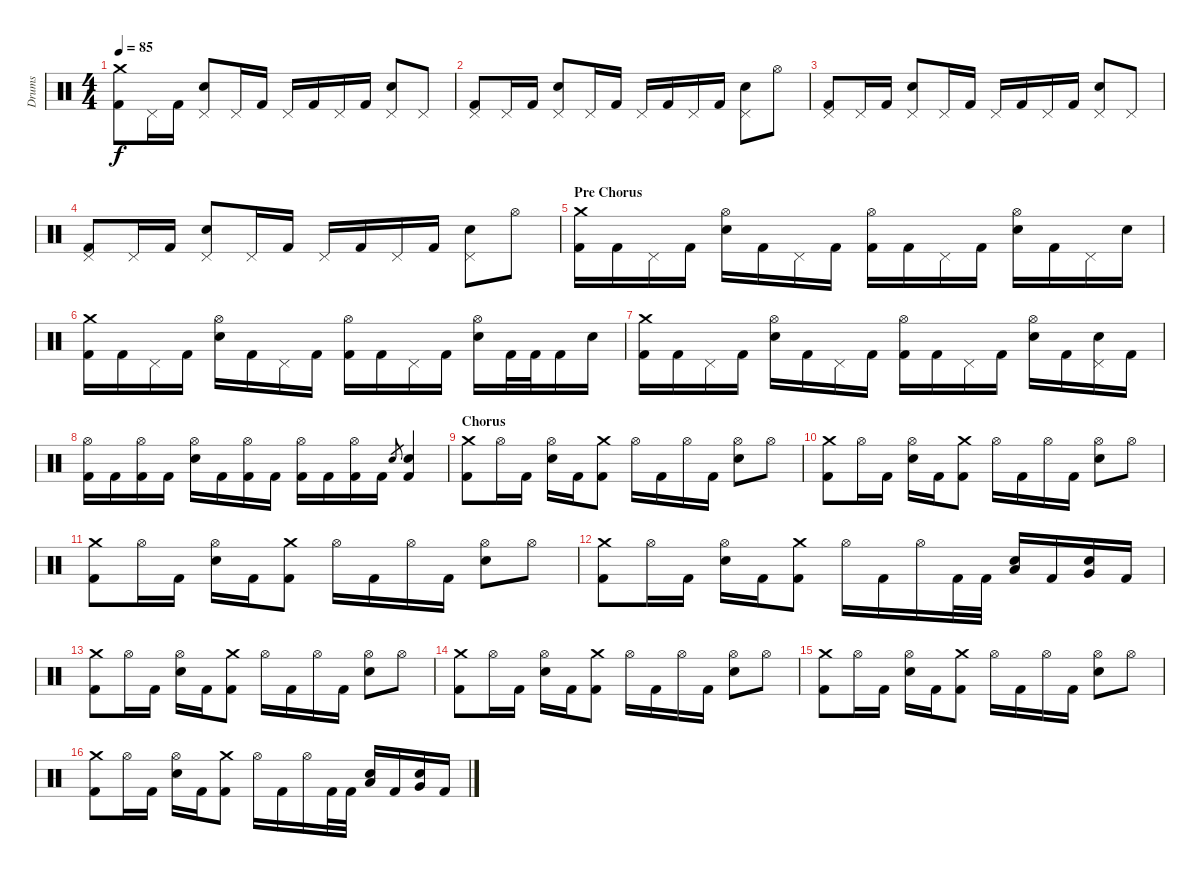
\track ("Drums" "Drums") {instrument percussion}
\staff {score}
\articulation defaults
\ts (4 4)
\tempo 85
\clef neutral
\ks c
("Crash medium (hit)" "Kick (hit) 2").8{dy f} "Pedal Hi-Hat (hit)".16 "Kick (hit) 2".16 ("Pedal Hi-Hat (hit)" "Electric Snare (hit)").8 "Pedal Hi-Hat (hit)".16 "Kick (hit) 2".16 "Pedal Hi-Hat (hit)".16 "Kick (hit) 2".16 "Pedal Hi-Hat (hit)".16 "Kick (hit) 2".16 ("Pedal Hi-Hat (hit)" "Electric Snare (hit)").8 "Pedal Hi-Hat (hit)".8 |
("Pedal Hi-Hat (hit)" "Kick (hit) 2").8 "Pedal Hi-Hat (hit)".16 "Kick (hit) 2".16 ("Pedal Hi-Hat (hit)" "Electric Snare (hit)").8 "Pedal Hi-Hat (hit)".16 "Kick (hit) 2".16 "Pedal Hi-Hat (hit)".16 "Kick (hit) 2".16 "Pedal Hi-Hat (hit)".16 "Kick (hit) 2".16 ("Pedal Hi-Hat (hit)" "Electric Snare (hit)").8 "Hi-Hat (open)".8 |
("Pedal Hi-Hat (hit)" "Kick (hit) 2").8 "Pedal Hi-Hat (hit)".16 "Kick (hit) 2".16 ("Pedal Hi-Hat (hit)" "Electric Snare (hit)").8 "Pedal Hi-Hat (hit)".16 "Kick (hit) 2".16 "Pedal Hi-Hat (hit)".16 "Kick (hit) 2".16 "Pedal Hi-Hat (hit)".16 "Kick (hit) 2".16 ("Pedal Hi-Hat (hit)" "Electric Snare (hit)").8 "Pedal Hi-Hat (hit)".8 |
("Pedal Hi-Hat (hit)" "Kick (hit) 2").8 "Pedal Hi-Hat (hit)".16 "Kick (hit) 2".16 ("Pedal Hi-Hat (hit)" "Electric Snare (hit)").8 "Pedal Hi-Hat (hit)".16 "Kick (hit) 2".16 "Pedal Hi-Hat (hit)".16 "Kick (hit) 2".16 "Pedal Hi-Hat (hit)".16 "Kick (hit) 2".16 ("Pedal Hi-Hat (hit)" "Electric Snare (hit)").8 "Hi-Hat (open)".8 |
\section ("" "Pre Chorus")
("Crash medium (hit)" "Kick (hit) 2").16 "Kick (hit) 2".16 "Pedal Hi-Hat (hit)".16 "Kick (hit) 2".16 ("Hi-Hat (open)" "Electric Snare (hit)").16 "Kick (hit) 2".16 "Pedal Hi-Hat (hit)".16 "Kick (hit) 2".16 ("Hi-Hat (open)" "Kick (hit) 2").16 "Kick (hit) 2".16 "Pedal Hi-Hat (hit)".16 "Kick (hit) 2".16 ("Hi-Hat (open)" "Electric Snare (hit)").16 "Kick (hit) 2".16 "Pedal Hi-Hat (hit)".16 "Electric Snare (hit)".16 |
("Crash medium (hit)" "Kick (hit) 2").16 "Kick (hit) 2".16 "Pedal Hi-Hat (hit)".16 "Kick (hit) 2".16 ("Hi-Hat (open)" "Electric Snare (hit)").16 "Kick (hit) 2".16 "Pedal Hi-Hat (hit)".16 "Kick (hit) 2".16 ("Hi-Hat (open)" "Kick (hit) 2").16 "Kick (hit) 2".16 "Pedal Hi-Hat (hit)".16 "Kick (hit) 2".16 ("Hi-Hat (open)" "Electric Snare (hit)").16 "Kick (hit) 2".32 "Kick (hit) 2".32 "Kick (hit) 2".16 "Electric Snare (hit)".16 |
("Crash medium (hit)" "Kick (hit) 2").16 "Kick (hit) 2".16 "Pedal Hi-Hat (hit)".16 "Kick (hit) 2".16 ("Hi-Hat (open)" "Electric Snare (hit)").16 "Kick (hit) 2".16 "Pedal Hi-Hat (hit)".16 "Kick (hit) 2".16 ("Hi-Hat (open)" "Kick (hit) 2").16 "Kick (hit) 2".16 "Pedal Hi-Hat (hit)".16 "Kick (hit) 2".16 ("Hi-Hat (open)" "Electric Snare (hit)").16 "Kick (hit) 2".16 ("Pedal Hi-Hat (hit)" "Electric Snare (hit)").16 "Kick (hit) 2".16 |
("Hi-Hat (open)" "Kick (hit) 2").16 "Kick (hit) 2".16 ("Hi-Hat (open)" "Kick (hit) 2").16 "Kick (hit) 2".16 ("Hi-Hat (open)" "Electric Snare (hit)").16 "Kick (hit) 2".16 ("Hi-Hat (open)" "Kick (hit) 2").16 "Kick (hit) 2".16 ("Hi-Hat (open)" "Kick (hit) 2").16 "Kick (hit) 2".16 ("Hi-Hat (open)" "Kick (hit) 2").16 "Kick (hit) 2".16 "Electric Snare (hit)".8{gr} ("Electric Snare (hit)" "Kick (hit) 2").4 |
\section ("" "Chorus")
("Crash medium (hit)" "Kick (hit) 2").8 "Hi-Hat (open)".16 "Kick (hit) 2".16 ("Hi-Hat (open)" "Electric Snare (hit)").16 "Kick (hit) 2".16 ("Crash medium (hit)" "Kick (hit) 2").8 "Hi-Hat (open)".16 "Kick (hit) 2".16 "Hi-Hat (open)".16 "Kick (hit) 2".16 ("Hi-Hat (open)" "Electric Snare (hit)").8 "Hi-Hat (open)".8 |
("Crash medium (hit)" "Kick (hit) 2").8 "Hi-Hat (open)".16 "Kick (hit) 2".16 ("Hi-Hat (open)" "Electric Snare (hit)").16 "Kick (hit) 2".16 ("Crash medium (hit)" "Kick (hit) 2").8 "Hi-Hat (open)".16 "Kick (hit) 2".16 "Hi-Hat (open)".16 "Kick (hit) 2".16 ("Hi-Hat (open)" "Electric Snare (hit)").8 "Hi-Hat (open)".8 |
("Crash medium (hit)" "Kick (hit) 2").8 "Hi-Hat (open)".16 "Kick (hit) 2".16 ("Hi-Hat (open)" "Electric Snare (hit)").16 "Kick (hit) 2".16 ("Crash medium (hit)" "Kick (hit) 2").8 "Hi-Hat (open)".16 "Kick (hit) 2".16 "Hi-Hat (open)".16 "Kick (hit) 2".16 ("Hi-Hat (open)" "Electric Snare (hit)").8 "Hi-Hat (open)".8 |
("Crash medium (hit)" "Kick (hit) 2").8 "Hi-Hat (open)".16 "Kick (hit) 2".16 ("Hi-Hat (open)" "Electric Snare (hit)").16 "Kick (hit) 2".16 ("Crash medium (hit)" "Kick (hit) 2").8 "Hi-Hat (open)".16 "Kick (hit) 2".16 "Hi-Hat (open)".16 "Kick (hit) 2".32 "Kick (hit) 2".32 ("Electric Snare (hit)" "Low Tom (hit)").16 "Kick (hit) 2".16 ("Electric Snare (hit)" "Very Low Tom (hit)").16 "Kick (hit) 2".16 |
("Crash medium (hit)" "Kick (hit) 2").8 "Hi-Hat (open)".16 "Kick (hit) 2".16 ("Hi-Hat (open)" "Electric Snare (hit)").16 "Kick (hit) 2".16 ("Crash medium (hit)" "Kick (hit) 2").8 "Hi-Hat (open)".16 "Kick (hit) 2".16 "Hi-Hat (open)".16 "Kick (hit) 2".16 ("Hi-Hat (open)" "Electric Snare (hit)").8 "Hi-Hat (open)".8 |
("Crash medium (hit)" "Kick (hit) 2").8 "Hi-Hat (open)".16 "Kick (hit) 2".16 ("Hi-Hat (open)" "Electric Snare (hit)").16 "Kick (hit) 2".16 ("Crash medium (hit)" "Kick (hit) 2").8 "Hi-Hat (open)".16 "Kick (hit) 2".16 "Hi-Hat (open)".16 "Kick (hit) 2".16 ("Hi-Hat (open)" "Electric Snare (hit)").8 "Hi-Hat (open)".8 |
("Crash medium (hit)" "Kick (hit) 2").8 "Hi-Hat (open)".16 "Kick (hit) 2".16 ("Hi-Hat (open)" "Electric Snare (hit)").16 "Kick (hit) 2".16 ("Crash medium (hit)" "Kick (hit) 2").8 "Hi-Hat (open)".16 "Kick (hit) 2".16 "Hi-Hat (open)".16 "Kick (hit) 2".16 ("Hi-Hat (open)" "Electric Snare (hit)").8 "Hi-Hat (open)".8 |
("Crash medium (hit)" "Kick (hit) 2").8 "Hi-Hat (open)".16 "Kick (hit) 2".16 ("Hi-Hat (open)" "Electric Snare (hit)").16 "Kick (hit) 2".16 ("Crash medium (hit)" "Kick (hit) 2").8 "Hi-Hat (open)".16 "Kick (hit) 2".16 "Hi-Hat (open)".16 "Kick (hit) 2".32 "Kick (hit) 2".32 ("Electric Snare (hit)" "Low Tom (hit)").16 "Kick (hit) 2".16 ("Electric Snare (hit)" "Very Low Tom (hit)").16 "Kick (hit) 2".16
